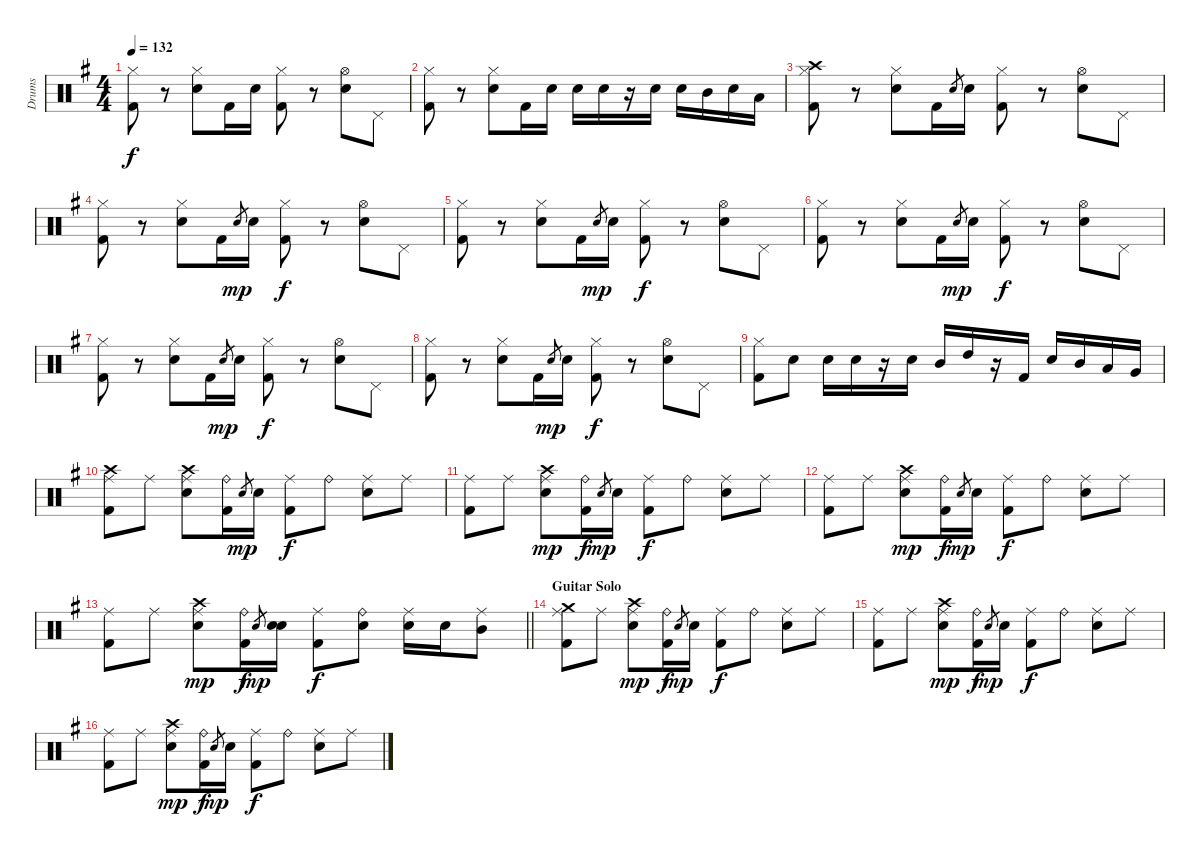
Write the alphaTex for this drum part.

\track ("Drums" "Drums") {instrument percussion}
\staff {score}
\articulation defaults
\ts (4 4)
\tempo 132
\clef neutral
\ks g
("Hi-Hat (closed)" "Kick (hit) 2").8{dy f} r.8 ("Hi-Hat (closed)" "Snare (hit) 2").8 "Kick (hit) 2".16 "Snare (hit) 2".16 ("Hi-Hat (closed)" "Kick (hit) 2").8 r.8 ("Hi-Hat (open)" "Snare (hit) 2").8 "Pedal Hi-Hat (hit)".8 |
("Hi-Hat (closed)" "Kick (hit) 2").8 r.8 ("Hi-Hat (closed)" "Snare (hit) 2").8 "Kick (hit) 2".16 "Snare (hit) 2".16 "Snare (hit) 2".16 "Snare (hit) 2".16 r.16 "Snare (hit) 2".16 "Snare (hit) 2".16 "Mid Tom (hit)".16 "Snare (hit) 2".16 "Low Tom (hit)".16 |
("Hi-Hat (closed)" "Kick (hit) 2" "Crash high (hit)").8 r.8 ("Hi-Hat (closed)" "Snare (hit) 2").8 "Kick (hit) 2".16 "Snare (hit) 2".8{gr} "Snare (hit) 2".16 ("Hi-Hat (closed)" "Kick (hit) 2").8 r.8 ("Hi-Hat (open)" "Snare (hit) 2").8 "Pedal Hi-Hat (hit)".8 |
("Hi-Hat (closed)" "Kick (hit) 2").8 r.8 ("Hi-Hat (closed)" "Snare (hit) 2").8 "Kick (hit) 2".16 "Snare (hit) 2".8{gr dy mp} "Snare (hit) 2".16 ("Hi-Hat (closed)" "Kick (hit) 2").8{dy f} r.8 ("Hi-Hat (open)" "Snare (hit) 2").8 "Pedal Hi-Hat (hit)".8 |
("Hi-Hat (closed)" "Kick (hit) 2").8 r.8 ("Hi-Hat (closed)" "Snare (hit) 2").8 "Kick (hit) 2".16 "Snare (hit) 2".8{gr dy mp} "Snare (hit) 2".16 ("Hi-Hat (closed)" "Kick (hit) 2").8{dy f} r.8 ("Hi-Hat (open)" "Snare (hit) 2").8 "Pedal Hi-Hat (hit)".8 |
("Hi-Hat (closed)" "Kick (hit) 2").8 r.8 ("Hi-Hat (closed)" "Snare (hit) 2").8 "Kick (hit) 2".16 "Snare (hit) 2".8{gr dy mp} "Snare (hit) 2".16 ("Hi-Hat (closed)" "Kick (hit) 2").8{dy f} r.8 ("Hi-Hat (open)" "Snare (hit) 2").8 "Pedal Hi-Hat (hit)".8 |
("Hi-Hat (closed)" "Kick (hit) 2").8 r.8 ("Hi-Hat (closed)" "Snare (hit) 2").8 "Kick (hit) 2".16 "Snare (hit) 2".8{gr dy mp} "Snare (hit) 2".16 ("Hi-Hat (closed)" "Kick (hit) 2").8{dy f} r.8 ("Hi-Hat (open)" "Snare (hit) 2").8 "Pedal Hi-Hat (hit)".8 |
("Hi-Hat (closed)" "Kick (hit) 2").8 r.8 ("Hi-Hat (closed)" "Snare (hit) 2").8 "Kick (hit) 2".16 "Snare (hit) 2".8{gr dy mp} "Snare (hit) 2".16 ("Hi-Hat (closed)" "Kick (hit) 2").8{dy f} r.8 ("Hi-Hat (open)" "Snare (hit) 2").8 "Pedal Hi-Hat (hit)".8 |
("Hi-Hat (closed)" "Kick (hit) 2").8 "Snare (hit) 2".8 "Snare (hit) 2".16 "Snare (hit) 2".16 r.16 "Snare (hit) 2".16 "Mid Tom (hit)".16 "High Tom (hit)".16 r.16 "Kick (hit) 2".16 "Snare (hit) 2".16 "Mid Tom (hit)".16 "Low Tom (hit)".16 "Very Low Tom (hit)".16 |
("Ride (middle)" "Kick (hit) 2" "Crash high (hit)").8 "Ride (middle)".8 ("Ride (middle)" "Snare (hit) 2" "Crash high (hit)").8 ("Ride (bell)" "Kick (hit) 2").16 "Snare (hit) 2".8{gr dy mp} "Snare (hit) 2".16 ("Ride (middle)" "Kick (hit) 2").8{dy f} "Ride (bell)".8 ("Ride (middle)" "Snare (hit) 2").8 "Ride (middle)".8 |
("Ride (middle)" "Kick (hit) 2").8 "Ride (middle)".8 ("Ride (middle)" "Snare (hit) 2" "Crash high (hit)").8{dy mp} ("Ride (bell)" "Kick (hit) 2").16{dy f} "Snare (hit) 2".8{gr dy mp} "Snare (hit) 2".16 ("Ride (middle)" "Kick (hit) 2").8{dy f} "Ride (bell)".8 ("Ride (middle)" "Snare (hit) 2").8 "Ride (middle)".8 |
("Ride (middle)" "Kick (hit) 2").8 "Ride (middle)".8 ("Ride (middle)" "Snare (hit) 2" "Crash high (hit)").8{dy mp} ("Ride (bell)" "Kick (hit) 2").16{dy f} "Snare (hit) 2".8{gr dy mp} "Snare (hit) 2".16 ("Ride (middle)" "Kick (hit) 2").8{dy f} "Ride (bell)".8 ("Ride (middle)" "Snare (hit) 2").8 "Ride (middle)".8 |
\barLineRight lightlight
("Ride (middle)" "Kick (hit) 2").8 "Ride (middle)".8 ("Ride (middle)" "Snare (hit) 2" "Crash high (hit)").8{dy mp} ("Ride (bell)" "Kick (hit) 2").16{dy f} "Snare (hit) 2".8{gr dy mp} ("Snare (hit) 2" "Snare (hit) 2").16 ("Ride (middle)" "Kick (hit) 2").8{dy f} ("Ride (bell)" "Snare (hit) 2").8 ("Ride (middle)" "Snare (hit) 2").16 "Snare (hit) 2".16 ("Ride (middle)" "Mid Tom (hit)").8 |
\section ("" "Guitar Solo")
("Ride (middle)" "Kick (hit) 2" "Crash medium (hit)").8 "Ride (middle)".8 ("Ride (middle)" "Snare (hit) 2" "Crash high (hit)").8{dy mp} ("Ride (bell)" "Kick (hit) 2").16{dy f} "Snare (hit) 2".8{gr dy mp} "Snare (hit) 2".16 ("Ride (middle)" "Kick (hit) 2").8{dy f} "Ride (bell)".8 ("Ride (middle)" "Snare (hit) 2").8 "Ride (middle)".8 |
("Ride (middle)" "Kick (hit) 2").8 "Ride (middle)".8 ("Ride (middle)" "Snare (hit) 2" "Crash high (hit)").8{dy mp} ("Ride (bell)" "Kick (hit) 2").16{dy f} "Snare (hit) 2".8{gr dy mp} "Snare (hit) 2".16 ("Ride (middle)" "Kick (hit) 2").8{dy f} "Ride (bell)".8 ("Ride (middle)" "Snare (hit) 2").8 "Ride (middle)".8 |
("Ride (middle)" "Kick (hit) 2").8 "Ride (middle)".8 ("Ride (middle)" "Snare (hit) 2" "Crash high (hit)").8{dy mp} ("Ride (bell)" "Kick (hit) 2").16{dy f} "Snare (hit) 2".8{gr dy mp} "Snare (hit) 2".16 ("Ride (middle)" "Kick (hit) 2").8{dy f} "Ride (bell)".8 ("Ride (middle)" "Snare (hit) 2").8 "Ride (middle)".8
